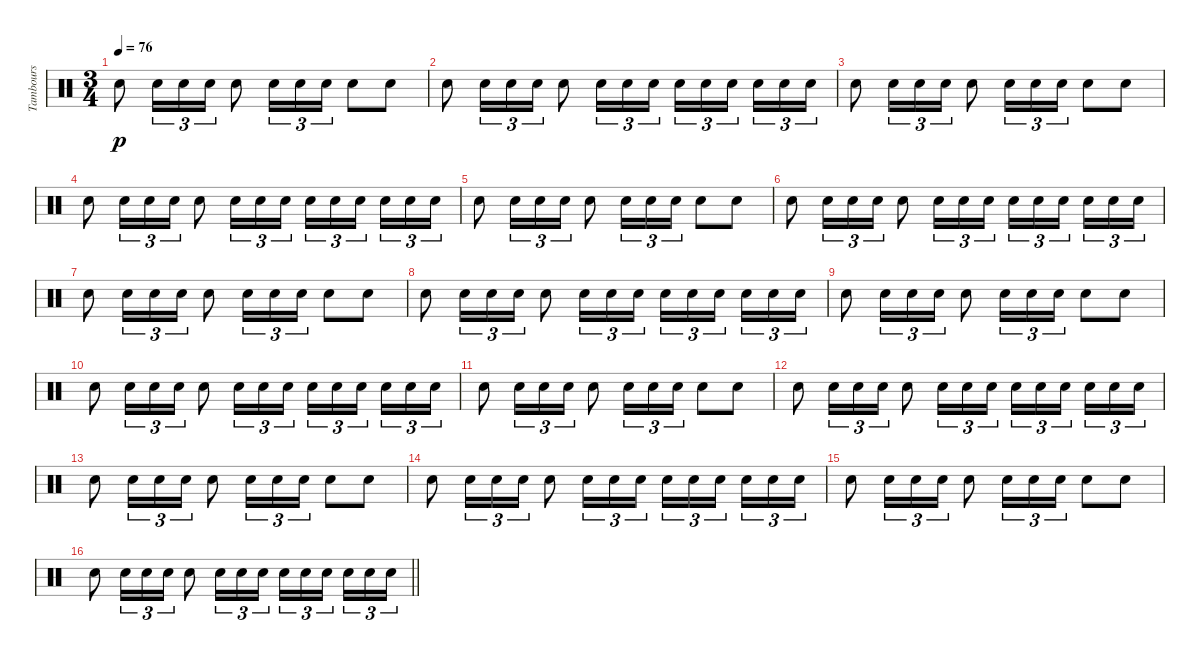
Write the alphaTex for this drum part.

\track ("Tambours" "Tambours") {instrument percussion}
\staff {score}
\articulation defaults
\ts (3 4)
\tempo 76
\clef neutral
\ks c "Snare (hit) 2".8{dy p} "Snare (hit) 2".16{tu (3 2)} "Snare (hit) 2".16{tu (3 2)} "Snare (hit) 2".16{tu (3 2)} "Snare (hit) 2".8 "Snare (hit) 2".16{tu (3 2)} "Snare (hit) 2".16{tu (3 2)} "Snare (hit) 2".16{tu (3 2)} "Snare (hit) 2".8 "Snare (hit) 2".8
|
"Snare (hit) 2".8 "Snare (hit) 2".16{tu (3 2)} "Snare (hit) 2".16{tu (3 2)} "Snare (hit) 2".16{tu (3 2)} "Snare (hit) 2".8 "Snare (hit) 2".16{tu (3 2)} "Snare (hit) 2".16{tu (3 2)} "Snare (hit) 2".16{tu (3 2)} "Snare (hit) 2".16{tu (3 2)} "Snare (hit) 2".16{tu (3 2)} "Snare (hit) 2".16{tu (3 2) beam splitsecondary} "Snare (hit) 2".16{tu (3 2)} "Snare (hit) 2".16{tu (3 2)} "Snare (hit) 2".16{tu (3 2)} |
"Snare (hit) 2".8 "Snare (hit) 2".16{tu (3 2)} "Snare (hit) 2".16{tu (3 2)} "Snare (hit) 2".16{tu (3 2)} "Snare (hit) 2".8 "Snare (hit) 2".16{tu (3 2)} "Snare (hit) 2".16{tu (3 2)} "Snare (hit) 2".16{tu (3 2)} "Snare (hit) 2".8 "Snare (hit) 2".8 |
"Snare (hit) 2".8 "Snare (hit) 2".16{tu (3 2)} "Snare (hit) 2".16{tu (3 2)} "Snare (hit) 2".16{tu (3 2)} "Snare (hit) 2".8 "Snare (hit) 2".16{tu (3 2)} "Snare (hit) 2".16{tu (3 2)} "Snare (hit) 2".16{tu (3 2)} "Snare (hit) 2".16{tu (3 2)} "Snare (hit) 2".16{tu (3 2)} "Snare (hit) 2".16{tu (3 2) beam splitsecondary} "Snare (hit) 2".16{tu (3 2)} "Snare (hit) 2".16{tu (3 2)} "Snare (hit) 2".16{tu (3 2)} |
"Snare (hit) 2".8 "Snare (hit) 2".16{tu (3 2)} "Snare (hit) 2".16{tu (3 2)} "Snare (hit) 2".16{tu (3 2)} "Snare (hit) 2".8 "Snare (hit) 2".16{tu (3 2)} "Snare (hit) 2".16{tu (3 2)} "Snare (hit) 2".16{tu (3 2)} "Snare (hit) 2".8 "Snare (hit) 2".8 |
"Snare (hit) 2".8 "Snare (hit) 2".16{tu (3 2)} "Snare (hit) 2".16{tu (3 2)} "Snare (hit) 2".16{tu (3 2)} "Snare (hit) 2".8 "Snare (hit) 2".16{tu (3 2)} "Snare (hit) 2".16{tu (3 2)} "Snare (hit) 2".16{tu (3 2)} "Snare (hit) 2".16{tu (3 2)} "Snare (hit) 2".16{tu (3 2)} "Snare (hit) 2".16{tu (3 2) beam splitsecondary} "Snare (hit) 2".16{tu (3 2)} "Snare (hit) 2".16{tu (3 2)} "Snare (hit) 2".16{tu (3 2)} |
"Snare (hit) 2".8 "Snare (hit) 2".16{tu (3 2)} "Snare (hit) 2".16{tu (3 2)} "Snare (hit) 2".16{tu (3 2)} "Snare (hit) 2".8 "Snare (hit) 2".16{tu (3 2)} "Snare (hit) 2".16{tu (3 2)} "Snare (hit) 2".16{tu (3 2)} "Snare (hit) 2".8 "Snare (hit) 2".8 |
"Snare (hit) 2".8 "Snare (hit) 2".16{tu (3 2)} "Snare (hit) 2".16{tu (3 2)} "Snare (hit) 2".16{tu (3 2)} "Snare (hit) 2".8 "Snare (hit) 2".16{tu (3 2)} "Snare (hit) 2".16{tu (3 2)} "Snare (hit) 2".16{tu (3 2)} "Snare (hit) 2".16{tu (3 2)} "Snare (hit) 2".16{tu (3 2)} "Snare (hit) 2".16{tu (3 2) beam splitsecondary} "Snare (hit) 2".16{tu (3 2)} "Snare (hit) 2".16{tu (3 2)} "Snare (hit) 2".16{tu (3 2)} |
"Snare (hit) 2".8 "Snare (hit) 2".16{tu (3 2)} "Snare (hit) 2".16{tu (3 2)} "Snare (hit) 2".16{tu (3 2)} "Snare (hit) 2".8 "Snare (hit) 2".16{tu (3 2)} "Snare (hit) 2".16{tu (3 2)} "Snare (hit) 2".16{tu (3 2)} "Snare (hit) 2".8 "Snare (hit) 2".8 |
"Snare (hit) 2".8 "Snare (hit) 2".16{tu (3 2)} "Snare (hit) 2".16{tu (3 2)} "Snare (hit) 2".16{tu (3 2)} "Snare (hit) 2".8 "Snare (hit) 2".16{tu (3 2)} "Snare (hit) 2".16{tu (3 2)} "Snare (hit) 2".16{tu (3 2)} "Snare (hit) 2".16{tu (3 2)} "Snare (hit) 2".16{tu (3 2)} "Snare (hit) 2".16{tu (3 2) beam splitsecondary} "Snare (hit) 2".16{tu (3 2)} "Snare (hit) 2".16{tu (3 2)} "Snare (hit) 2".16{tu (3 2)} |
"Snare (hit) 2".8 "Snare (hit) 2".16{tu (3 2)} "Snare (hit) 2".16{tu (3 2)} "Snare (hit) 2".16{tu (3 2)} "Snare (hit) 2".8 "Snare (hit) 2".16{tu (3 2)} "Snare (hit) 2".16{tu (3 2)} "Snare (hit) 2".16{tu (3 2)} "Snare (hit) 2".8 "Snare (hit) 2".8 |
"Snare (hit) 2".8 "Snare (hit) 2".16{tu (3 2)} "Snare (hit) 2".16{tu (3 2)} "Snare (hit) 2".16{tu (3 2)} "Snare (hit) 2".8 "Snare (hit) 2".16{tu (3 2)} "Snare (hit) 2".16{tu (3 2)} "Snare (hit) 2".16{tu (3 2)} "Snare (hit) 2".16{tu (3 2)} "Snare (hit) 2".16{tu (3 2)} "Snare (hit) 2".16{tu (3 2) beam splitsecondary} "Snare (hit) 2".16{tu (3 2)} "Snare (hit) 2".16{tu (3 2)} "Snare (hit) 2".16{tu (3 2)} |
"Snare (hit) 2".8 "Snare (hit) 2".16{tu (3 2)} "Snare (hit) 2".16{tu (3 2)} "Snare (hit) 2".16{tu (3 2)} "Snare (hit) 2".8 "Snare (hit) 2".16{tu (3 2)} "Snare (hit) 2".16{tu (3 2)} "Snare (hit) 2".16{tu (3 2)} "Snare (hit) 2".8 "Snare (hit) 2".8 |
"Snare (hit) 2".8 "Snare (hit) 2".16{tu (3 2)} "Snare (hit) 2".16{tu (3 2)} "Snare (hit) 2".16{tu (3 2)} "Snare (hit) 2".8 "Snare (hit) 2".16{tu (3 2)} "Snare (hit) 2".16{tu (3 2)} "Snare (hit) 2".16{tu (3 2)} "Snare (hit) 2".16{tu (3 2)} "Snare (hit) 2".16{tu (3 2)} "Snare (hit) 2".16{tu (3 2) beam splitsecondary} "Snare (hit) 2".16{tu (3 2)} "Snare (hit) 2".16{tu (3 2)} "Snare (hit) 2".16{tu (3 2)} |
"Snare (hit) 2".8 "Snare (hit) 2".16{tu (3 2)} "Snare (hit) 2".16{tu (3 2)} "Snare (hit) 2".16{tu (3 2)} "Snare (hit) 2".8 "Snare (hit) 2".16{tu (3 2)} "Snare (hit) 2".16{tu (3 2)} "Snare (hit) 2".16{tu (3 2)} "Snare (hit) 2".8 "Snare (hit) 2".8 |
\barLineRight lightlight "Snare (hit) 2".8 "Snare (hit) 2".16{tu (3 2)} "Snare (hit) 2".16{tu (3 2)} "Snare (hit) 2".16{tu (3 2)} "Snare (hit) 2".8 "Snare (hit) 2".16{tu (3 2)} "Snare (hit) 2".16{tu (3 2)} "Snare (hit) 2".16{tu (3 2)} "Snare (hit) 2".16{tu (3 2)} "Snare (hit) 2".16{tu (3 2)} "Snare (hit) 2".16{tu (3 2) beam splitsecondary} "Snare (hit) 2".16{tu (3 2)} "Snare (hit) 2".16{tu (3 2)} "Snare (hit) 2".16{tu (3 2)}
